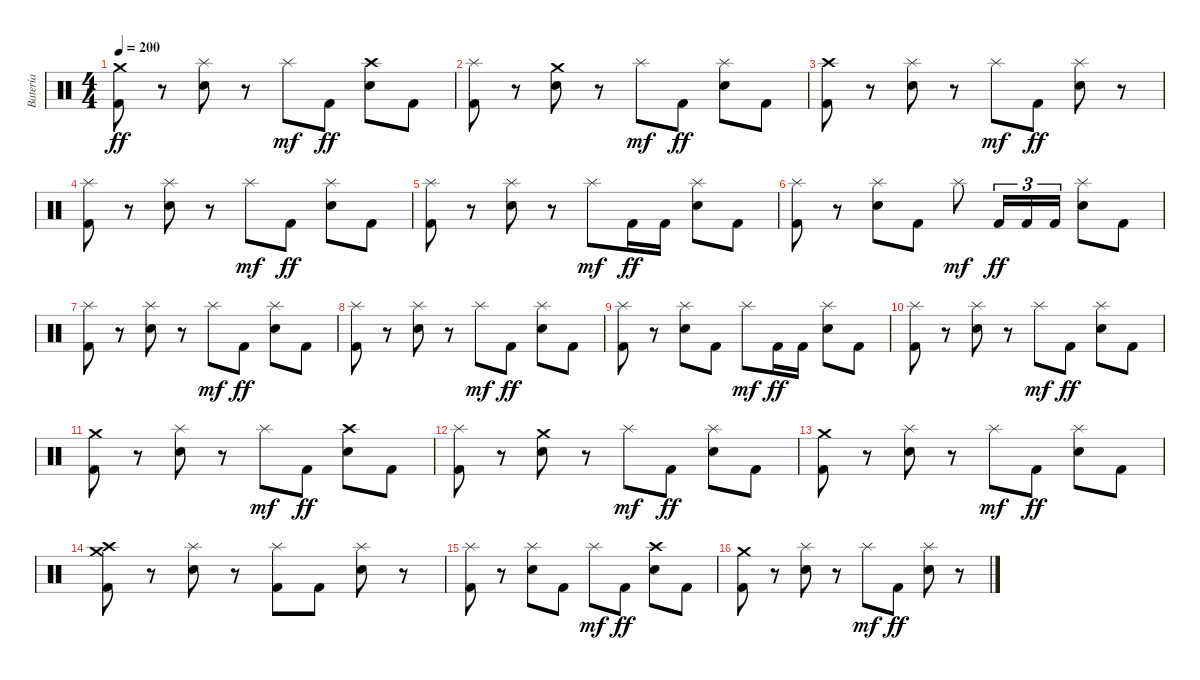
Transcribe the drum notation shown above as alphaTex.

\track ("Batería" "Batería") {instrument percussion}
\staff {score}
\articulation defaults
\ts (4 4)
\tempo 200
\clef neutral
\ks c
("Crash medium (hit)" "Kick (hit) 2").8{dy ff} r.8 ("Splash (hit)" "Electric Snare (hit)").8 r.8 "Splash (hit)".8{dy mf} "Kick (hit) 2".8{dy ff} ("Crash high (hit)" "Electric Snare (hit)").8 "Kick (hit) 2".8 |
("Splash (hit)" "Kick (hit) 2").8 r.8 ("Crash medium (hit)" "Electric Snare (hit)").8 r.8 "Splash (hit)".8{dy mf} "Kick (hit) 2".8{dy ff} ("Splash (hit)" "Electric Snare (hit)").8 "Kick (hit) 2".8 |
("Crash high (hit)" "Kick (hit) 2").8 r.8 ("Splash (hit)" "Electric Snare (hit)").8 r.8 "Splash (hit)".8{dy mf} "Kick (hit) 2".8{dy ff} ("Splash (hit)" "Electric Snare (hit)").8 r.8 |
("Splash (hit)" "Kick (hit) 2").8 r.8 ("Splash (hit)" "Electric Snare (hit)").8 r.8 "Splash (hit)".8{dy mf} "Kick (hit) 2".8{dy ff} ("Splash (hit)" "Electric Snare (hit)").8 "Kick (hit) 2".8 |
("Splash (hit)" "Kick (hit) 2").8 r.8 ("Splash (hit)" "Electric Snare (hit)").8 r.8 "Splash (hit)".8{dy mf} "Kick (hit) 2".16{dy ff} "Kick (hit) 2".16 ("Splash (hit)" "Electric Snare (hit)").8 "Kick (hit) 2".8 |
("Splash (hit)" "Kick (hit) 2").8 r.8 ("Splash (hit)" "Electric Snare (hit)").8 "Kick (hit) 2".8 "Splash (hit)".8{dy mf} "Kick (hit) 2".16{tu (3 2) dy ff} "Kick (hit) 2".16{tu (3 2)} "Kick (hit) 2".16{tu (3 2)} ("Splash (hit)" "Electric Snare (hit)").8 "Kick (hit) 2".8 |
("Splash (hit)" "Kick (hit) 2").8 r.8 ("Splash (hit)" "Electric Snare (hit)").8 r.8 "Splash (hit)".8{dy mf} "Kick (hit) 2".8{dy ff} ("Splash (hit)" "Electric Snare (hit)").8 "Kick (hit) 2".8 |
("Splash (hit)" "Kick (hit) 2").8 r.8 ("Splash (hit)" "Electric Snare (hit)").8 r.8 "Splash (hit)".8{dy mf} "Kick (hit) 2".8{dy ff} ("Splash (hit)" "Electric Snare (hit)").8 "Kick (hit) 2".8 |
("Splash (hit)" "Kick (hit) 2").8 r.8 ("Splash (hit)" "Electric Snare (hit)").8 "Kick (hit) 2".8 "Splash (hit)".8{dy mf} "Kick (hit) 2".16{dy ff} "Kick (hit) 2".16 ("Splash (hit)" "Electric Snare (hit)").8 "Kick (hit) 2".8 |
("Splash (hit)" "Kick (hit) 2").8 r.8 ("Splash (hit)" "Electric Snare (hit)").8 r.8 "Splash (hit)".8{dy mf} "Kick (hit) 2".8{dy ff} ("Splash (hit)" "Electric Snare (hit)").8 "Kick (hit) 2".8 |
("Crash medium (hit)" "Kick (hit) 2").8 r.8 ("Splash (hit)" "Electric Snare (hit)").8 r.8 "Splash (hit)".8{dy mf} "Kick (hit) 2".8{dy ff} ("Crash high (hit)" "Electric Snare (hit)").8 "Kick (hit) 2".8 |
("Splash (hit)" "Kick (hit) 2").8 r.8 ("Crash medium (hit)" "Electric Snare (hit)").8 r.8 "Splash (hit)".8{dy mf} "Kick (hit) 2".8{dy ff} ("Splash (hit)" "Electric Snare (hit)").8 "Kick (hit) 2".8 |
("Crash medium (hit)" "Kick (hit) 2").8 r.8 ("Splash (hit)" "Electric Snare (hit)").8 r.8 "Splash (hit)".8{dy mf} "Kick (hit) 2".8{dy ff} ("Splash (hit)" "Electric Snare (hit)").8 "Kick (hit) 2".8 |
("Crash high (hit)" "Crash medium (hit)" "Kick (hit) 2").8 r.8 ("Splash (hit)" "Electric Snare (hit)").8 r.8 ("Splash (hit)" "Kick (hit) 2").8 "Kick (hit) 2".8 ("Splash (hit)" "Electric Snare (hit)").8 r.8 |
("Splash (hit)" "Kick (hit) 2").8 r.8 ("Splash (hit)" "Electric Snare (hit)").8 "Kick (hit) 2".8 "Splash (hit)".8{dy mf} "Kick (hit) 2".8{dy ff} ("Crash high (hit)" "Electric Snare (hit)").8 "Kick (hit) 2".8 |
("Crash medium (hit)" "Kick (hit) 2").8 r.8 ("Splash (hit)" "Electric Snare (hit)").8 r.8 "Splash (hit)".8{dy mf} "Kick (hit) 2".8{dy ff} ("Splash (hit)" "Electric Snare (hit)").8 r.8
